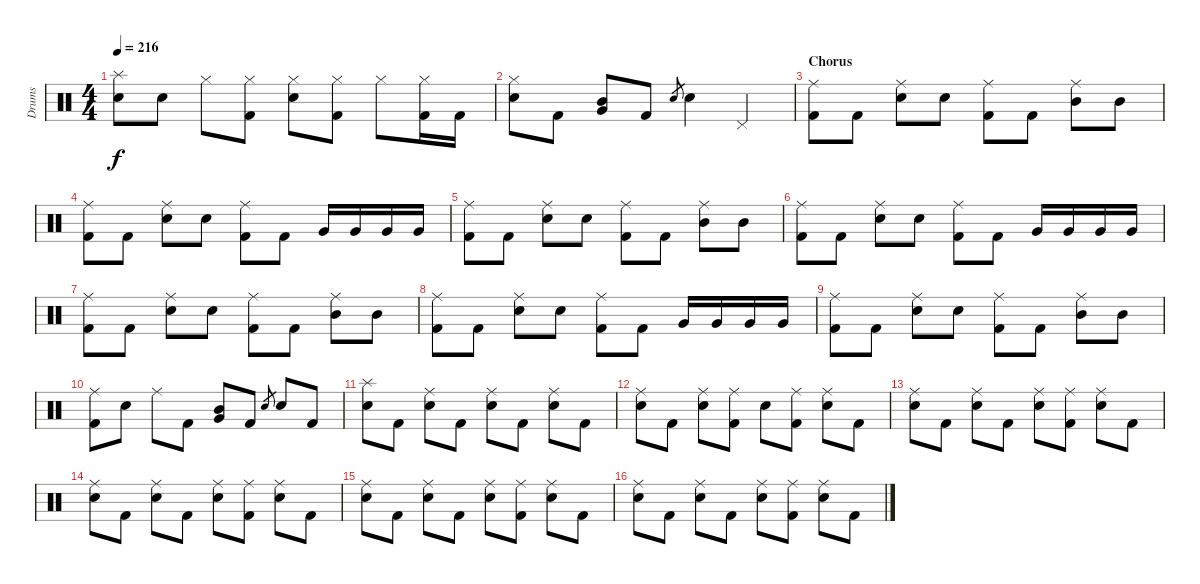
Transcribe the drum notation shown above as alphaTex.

\track ("Drums" "Drums") {instrument percussion}
\staff {score}
\articulation defaults
\ts (4 4)
\tempo 216
\clef neutral
\ks c
("Splash (hit)" "Electric Snare (hit)").8{dy f} "Electric Snare (hit)".8 "Hi-Hat (closed)".8 ("Hi-Hat (closed)" "Kick (hit) 2").8 ("Hi-Hat (closed)" "Electric Snare (hit)").8 ("Hi-Hat (closed)" "Kick (hit) 2").8 "Hi-Hat (closed)".8 ("Hi-Hat (closed)" "Kick (hit) 2").16 "Kick (hit) 2".16 |
("Hi-Hat (closed)" "Electric Snare (hit)").8 "Kick (hit) 2".8 ("Mid Tom (hit)" "Very Low Tom (hit)").8 "Kick (hit) 2".8 "Electric Snare (hit)".8{gr} "Electric Snare (hit)".4 "Pedal Hi-Hat (hit)".4 |
\section ("" "Chorus")
("Ride (middle)" "Kick (hit) 2").8 "Kick (hit) 2".8 ("Ride (middle)" "Electric Snare (hit)").8 "Electric Snare (hit)".8 ("Ride (middle)" "Kick (hit) 2").8 "Kick (hit) 2".8 ("Ride (middle)" "Mid Tom (hit)").8 "Mid Tom (hit)".8 |
("Ride (middle)" "Kick (hit) 2").8 "Kick (hit) 2".8 ("Ride (middle)" "Electric Snare (hit)").8 "Electric Snare (hit)".8 ("Ride (middle)" "Kick (hit) 2").8 "Kick (hit) 2".8 "Very Low Tom (hit)".16 "Very Low Tom (hit)".16 "Very Low Tom (hit)".16 "Very Low Tom (hit)".16 |
("Ride (middle)" "Kick (hit) 2").8 "Kick (hit) 2".8 ("Ride (middle)" "Electric Snare (hit)").8 "Electric Snare (hit)".8 ("Ride (middle)" "Kick (hit) 2").8 "Kick (hit) 2".8 ("Ride (middle)" "Mid Tom (hit)").8 "Mid Tom (hit)".8 |
("Ride (middle)" "Kick (hit) 2").8 "Kick (hit) 2".8 ("Ride (middle)" "Electric Snare (hit)").8 "Electric Snare (hit)".8 ("Ride (middle)" "Kick (hit) 2").8 "Kick (hit) 2".8 "Very Low Tom (hit)".16 "Very Low Tom (hit)".16 "Very Low Tom (hit)".16 "Very Low Tom (hit)".16 |
("Ride (middle)" "Kick (hit) 2").8 "Kick (hit) 2".8 ("Ride (middle)" "Electric Snare (hit)").8 "Electric Snare (hit)".8 ("Ride (middle)" "Kick (hit) 2").8 "Kick (hit) 2".8 ("Ride (middle)" "Mid Tom (hit)").8 "Mid Tom (hit)".8 |
("Ride (middle)" "Kick (hit) 2").8 "Kick (hit) 2".8 ("Ride (middle)" "Electric Snare (hit)").8 "Electric Snare (hit)".8 ("Ride (middle)" "Kick (hit) 2").8 "Kick (hit) 2".8 "Very Low Tom (hit)".16 "Very Low Tom (hit)".16 "Very Low Tom (hit)".16 "Very Low Tom (hit)".16 |
("Ride (middle)" "Kick (hit) 2").8 "Kick (hit) 2".8 ("Ride (middle)" "Electric Snare (hit)").8 "Electric Snare (hit)".8 ("Ride (middle)" "Kick (hit) 2").8 "Kick (hit) 2".8 ("Ride (middle)" "Mid Tom (hit)").8 "Mid Tom (hit)".8 |
("Ride (middle)" "Kick (hit) 2").8 "Electric Snare (hit)".8 "Ride (middle)".8 "Kick (hit) 2".8 ("Mid Tom (hit)" "Very Low Tom (hit)").8 "Kick (hit) 2".8 "Electric Snare (hit)".8{gr} "Electric Snare (hit)".8 "Kick (hit) 2".8 |
("Splash (hit)" "Electric Snare (hit)").8 "Kick (hit) 2".8 ("Ride (middle)" "Electric Snare (hit)").8 "Kick (hit) 2".8 ("Ride (middle)" "Electric Snare (hit)").8 "Kick (hit) 2".8 ("Ride (middle)" "Electric Snare (hit)").8 "Kick (hit) 2".8 |
("Ride (middle)" "Electric Snare (hit)").8 "Kick (hit) 2".8 ("Ride (middle)" "Electric Snare (hit)").8 ("Ride (middle)" "Kick (hit) 2").8 "Electric Snare (hit)".8 ("Ride (middle)" "Kick (hit) 2").8 ("Ride (middle)" "Electric Snare (hit)").8 "Kick (hit) 2".8 |
("Ride (middle)" "Electric Snare (hit)").8 "Kick (hit) 2".8 ("Ride (middle)" "Electric Snare (hit)").8 "Kick (hit) 2".8 ("Ride (middle)" "Electric Snare (hit)").8 ("Ride (middle)" "Kick (hit) 2").8 ("Ride (middle)" "Electric Snare (hit)").8 "Kick (hit) 2".8 |
("Ride (middle)" "Electric Snare (hit)").8 "Kick (hit) 2".8 ("Ride (middle)" "Electric Snare (hit)").8 "Kick (hit) 2".8 ("Ride (middle)" "Electric Snare (hit)").8 ("Ride (middle)" "Kick (hit) 2").8 ("Ride (middle)" "Electric Snare (hit)").8 "Kick (hit) 2".8 |
("Ride (middle)" "Electric Snare (hit)").8 "Kick (hit) 2".8 ("Ride (middle)" "Electric Snare (hit)").8 "Kick (hit) 2".8 ("Ride (middle)" "Electric Snare (hit)").8 ("Ride (middle)" "Kick (hit) 2").8 ("Ride (middle)" "Electric Snare (hit)").8 "Kick (hit) 2".8 |
("Ride (middle)" "Electric Snare (hit)").8 "Kick (hit) 2".8 ("Ride (middle)" "Electric Snare (hit)").8 "Kick (hit) 2".8 ("Ride (middle)" "Electric Snare (hit)").8 ("Ride (middle)" "Kick (hit) 2").8 ("Ride (middle)" "Electric Snare (hit)").8 "Kick (hit) 2".8
